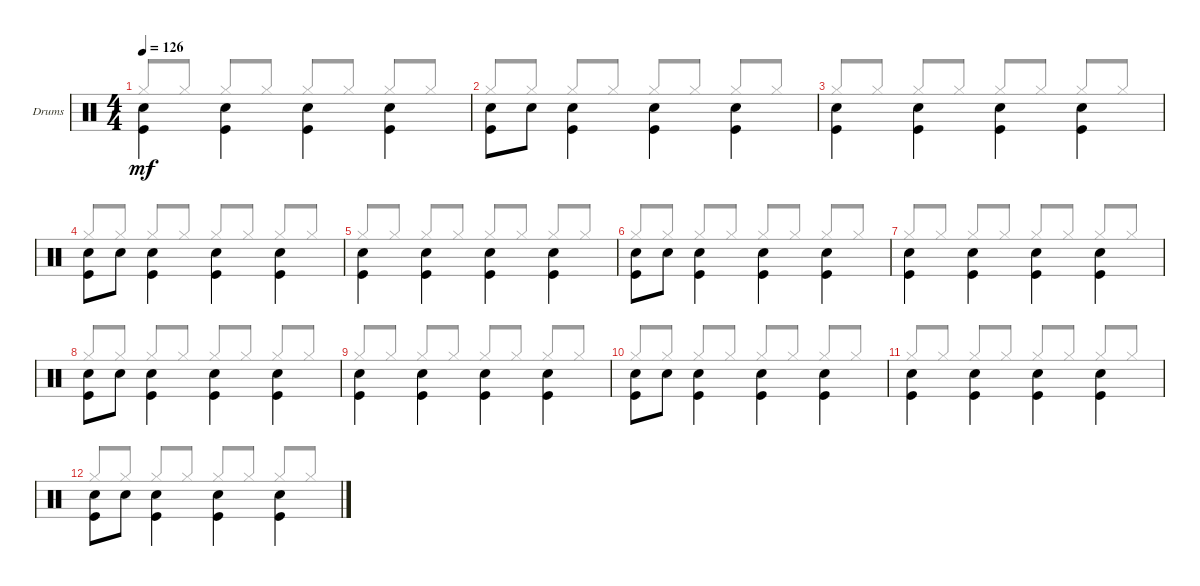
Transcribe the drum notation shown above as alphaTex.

\defaultSystemsLayout 4
\bracketExtendMode groupsimilarinstruments
\firstSystemTrackNameOrientation horizontal
\otherSystemsTrackNameOrientation horizontal
\track ("PETER CRISS" "Drums") {instrument percussion}
\staff {score}
\articulation defaults
\voice
\ts (4 4)
\tempo 126
\clef neutral
\ks c
("Snare (hit) 2" "Kick (hit)").4{dy mf beam invert} ("Snare (hit) 2" "Kick (hit)").4{beam invert} ("Snare (hit) 2" "Kick (hit)").4{beam invert} ("Snare (hit) 2" "Kick (hit)").4{beam invert} |
("Snare (hit) 2" "Kick (hit)").8{beam invert} "Snare (hit) 2".8 ("Snare (hit) 2" "Kick (hit)").4{beam invert} ("Snare (hit) 2" "Kick (hit)").4{beam invert} ("Snare (hit) 2" "Kick (hit)").4{beam invert} |
("Snare (hit) 2" "Kick (hit)").4{beam invert} ("Snare (hit) 2" "Kick (hit)").4{beam invert} ("Snare (hit) 2" "Kick (hit)").4{beam invert} ("Snare (hit) 2" "Kick (hit)").4{beam invert} |
("Snare (hit) 2" "Kick (hit)").8{beam invert} "Snare (hit) 2".8 ("Snare (hit) 2" "Kick (hit)").4{beam invert} ("Snare (hit) 2" "Kick (hit)").4{beam invert} ("Snare (hit) 2" "Kick (hit)").4{beam invert} |
("Snare (hit) 2" "Kick (hit)").4{beam invert} ("Snare (hit) 2" "Kick (hit)").4{beam invert} ("Snare (hit) 2" "Kick (hit)").4{beam invert} ("Snare (hit) 2" "Kick (hit)").4{beam invert} |
("Snare (hit) 2" "Kick (hit)").8{beam invert} "Snare (hit) 2".8 ("Snare (hit) 2" "Kick (hit)").4{beam invert} ("Snare (hit) 2" "Kick (hit)").4{beam invert} ("Snare (hit) 2" "Kick (hit)").4{beam invert} |
("Snare (hit) 2" "Kick (hit)").4{beam invert} ("Snare (hit) 2" "Kick (hit)").4{beam invert} ("Snare (hit) 2" "Kick (hit)").4{beam invert} ("Snare (hit) 2" "Kick (hit)").4{beam invert} |
("Snare (hit) 2" "Kick (hit)").8{beam invert} "Snare (hit) 2".8 ("Snare (hit) 2" "Kick (hit)").4{beam invert} ("Snare (hit) 2" "Kick (hit)").4{beam invert} ("Snare (hit) 2" "Kick (hit)").4{beam invert} |
("Snare (hit) 2" "Kick (hit)").4{beam invert} ("Snare (hit) 2" "Kick (hit)").4{beam invert} ("Snare (hit) 2" "Kick (hit)").4{beam invert} ("Snare (hit) 2" "Kick (hit)").4{beam invert} |
("Snare (hit) 2" "Kick (hit)").8{beam invert} "Snare (hit) 2".8 ("Snare (hit) 2" "Kick (hit)").4{beam invert} ("Snare (hit) 2" "Kick (hit)").4{beam invert} ("Snare (hit) 2" "Kick (hit)").4{beam invert} |
("Snare (hit) 2" "Kick (hit)").4{beam invert} ("Snare (hit) 2" "Kick (hit)").4{beam invert} ("Snare (hit) 2" "Kick (hit)").4{beam invert} ("Snare (hit) 2" "Kick (hit)").4{beam invert} |
("Snare (hit) 2" "Kick (hit)").8{beam invert} "Snare (hit) 2".8 ("Snare (hit) 2" "Kick (hit)").4{beam invert} ("Snare (hit) 2" "Kick (hit)").4{beam invert} ("Snare (hit) 2" "Kick (hit)").4{beam invert}
\voice
\clef neutral
\ottava regular
\simile none
\ks c "Hi-Hat (closed)".8{dy mf beam invert} "Hi-Hat (closed)".8 "Hi-Hat (closed)".8{beam invert} "Hi-Hat (closed)".8 "Hi-Hat (closed)".8{beam invert} "Hi-Hat (closed)".8 "Hi-Hat (closed)".8{beam invert} "Hi-Hat (closed)".8
|
"Hi-Hat (closed)".8{beam invert} "Hi-Hat (closed)".8 "Hi-Hat (closed)".8{beam invert} "Hi-Hat (closed)".8 "Hi-Hat (closed)".8{beam invert} "Hi-Hat (closed)".8 "Hi-Hat (closed)".8{beam invert} "Hi-Hat (closed)".8 |
"Hi-Hat (closed)".8{beam invert} "Hi-Hat (closed)".8 "Hi-Hat (closed)".8{beam invert} "Hi-Hat (closed)".8 "Hi-Hat (closed)".8{beam invert} "Hi-Hat (closed)".8 "Hi-Hat (closed)".8{beam invert} "Hi-Hat (closed)".8 |
"Hi-Hat (closed)".8{beam invert} "Hi-Hat (closed)".8 "Hi-Hat (closed)".8{beam invert} "Hi-Hat (closed)".8 "Hi-Hat (closed)".8{beam invert} "Hi-Hat (closed)".8 "Hi-Hat (closed)".8{beam invert} "Hi-Hat (closed)".8 |
"Hi-Hat (closed)".8{beam invert} "Hi-Hat (closed)".8 "Hi-Hat (closed)".8{beam invert} "Hi-Hat (closed)".8 "Hi-Hat (closed)".8{beam invert} "Hi-Hat (closed)".8 "Hi-Hat (closed)".8{beam invert} "Hi-Hat (closed)".8 |
"Hi-Hat (closed)".8{beam invert} "Hi-Hat (closed)".8 "Hi-Hat (closed)".8{beam invert} "Hi-Hat (closed)".8 "Hi-Hat (closed)".8{beam invert} "Hi-Hat (closed)".8 "Hi-Hat (closed)".8{beam invert} "Hi-Hat (closed)".8 |
"Hi-Hat (closed)".8{beam invert} "Hi-Hat (closed)".8 "Hi-Hat (closed)".8{beam invert} "Hi-Hat (closed)".8 "Hi-Hat (closed)".8{beam invert} "Hi-Hat (closed)".8 "Hi-Hat (closed)".8{beam invert} "Hi-Hat (closed)".8 |
"Hi-Hat (closed)".8{beam invert} "Hi-Hat (closed)".8 "Hi-Hat (closed)".8{beam invert} "Hi-Hat (closed)".8 "Hi-Hat (closed)".8{beam invert} "Hi-Hat (closed)".8 "Hi-Hat (closed)".8{beam invert} "Hi-Hat (closed)".8 |
"Hi-Hat (closed)".8{beam invert} "Hi-Hat (closed)".8 "Hi-Hat (closed)".8{beam invert} "Hi-Hat (closed)".8 "Hi-Hat (closed)".8{beam invert} "Hi-Hat (closed)".8 "Hi-Hat (closed)".8{beam invert} "Hi-Hat (closed)".8 |
"Hi-Hat (closed)".8{beam invert} "Hi-Hat (closed)".8 "Hi-Hat (closed)".8{beam invert} "Hi-Hat (closed)".8 "Hi-Hat (closed)".8{beam invert} "Hi-Hat (closed)".8 "Hi-Hat (closed)".8{beam invert} "Hi-Hat (closed)".8 |
"Hi-Hat (closed)".8{beam invert} "Hi-Hat (closed)".8 "Hi-Hat (closed)".8{beam invert} "Hi-Hat (closed)".8 "Hi-Hat (closed)".8{beam invert} "Hi-Hat (closed)".8 "Hi-Hat (closed)".8{beam invert} "Hi-Hat (closed)".8 |
"Hi-Hat (closed)".8{beam invert} "Hi-Hat (closed)".8 "Hi-Hat (closed)".8{beam invert} "Hi-Hat (closed)".8 "Hi-Hat (closed)".8{beam invert} "Hi-Hat (closed)".8 "Hi-Hat (closed)".8{beam invert} "Hi-Hat (closed)".8
